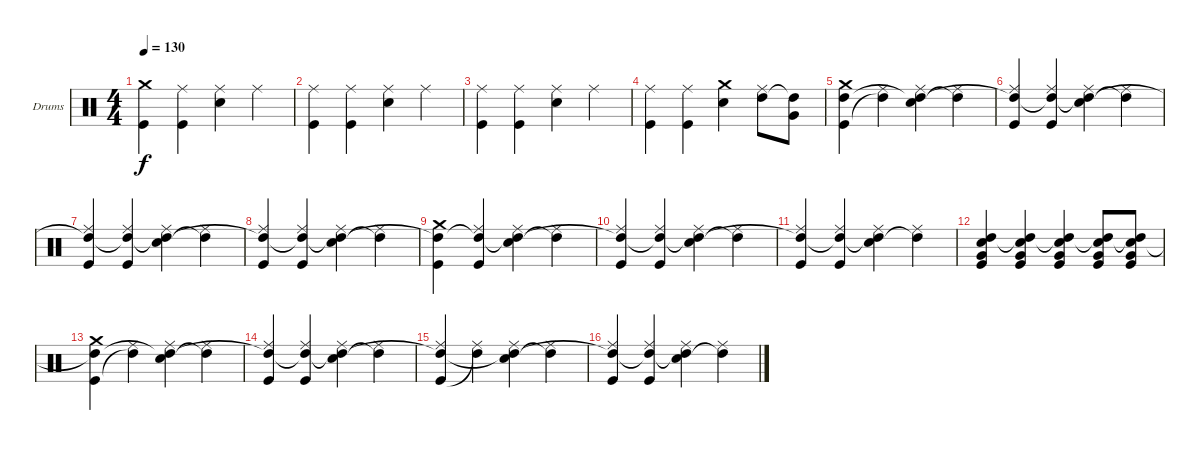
\bracketExtendMode groupsimilarinstruments
\firstSystemTrackNameOrientation horizontal
\otherSystemsTrackNameOrientation horizontal
\track ("Drumkit" "Drums") {instrument percussion}
\staff {score}
\articulation defaults
\ts (4 4)
\tempo 130
\clef neutral
\ks c
("Crash medium (hit)" "Kick (hit)").4{dy f} ("Ride (middle)" "Kick (hit)").4 ("Ride (middle)" "Snare (hit) 2").4 "Ride (middle)".4 |
("Ride (middle)" "Kick (hit)").4 ("Ride (middle)" "Kick (hit)").4 ("Ride (middle)" "Snare (hit) 2").4 "Ride (middle)".4 |
("Ride (middle)" "Kick (hit)").4 ("Ride (middle)" "Kick (hit)").4 ("Ride (middle)" "Snare (hit) 2").4 "Ride (middle)".4 |
("Ride (middle)" "Kick (hit)").4 ("Ride (middle)" "Kick (hit)").4 ("Crash medium (hit)" "Snare (hit) 2").4 ("Ride (middle)" "High Tom (hit)").8 ("Very Low Tom (hit)" "High Tom (hit)"{t}).8 |
("Crash medium (hit)" "Kick (hit)" "High Tom (hit)").4 ("Ride (middle)" "High Tom (hit)"{t}).4 ("Ride (middle)" "Snare (hit) 2" "High Tom (hit)"{t}).4 ("Ride (middle)" "High Tom (hit)"{t}).4 |
("Ride (middle)" "Kick (hit)" "High Tom (hit)"{t}).4 ("Ride (middle)" "Kick (hit)" "High Tom (hit)"{t}).4 ("Ride (middle)" "Snare (hit) 2" "High Tom (hit)"{t}).4 ("Ride (middle)" "High Tom (hit)"{t}).4 |
("Ride (middle)" "Kick (hit)" "High Tom (hit)"{t}).4 ("Ride (middle)" "Kick (hit)" "High Tom (hit)"{t}).4 ("Ride (middle)" "Snare (hit) 2" "High Tom (hit)"{t}).4 ("Ride (middle)" "High Tom (hit)"{t}).4 |
("Ride (middle)" "Kick (hit)" "High Tom (hit)"{t}).4 ("Ride (middle)" "Kick (hit)" "High Tom (hit)"{t}).4 ("Ride (middle)" "Snare (hit) 2" "High Tom (hit)"{t}).4 ("Ride (middle)" "High Tom (hit)"{t}).4 |
("Crash medium (hit)" "Kick (hit)" "High Tom (hit)"{t}).4 ("Ride (middle)" "Kick (hit)" "High Tom (hit)"{t}).4 ("Ride (middle)" "Snare (hit) 2" "High Tom (hit)"{t}).4 ("Ride (middle)" "High Tom (hit)"{t}).4 |
("Ride (middle)" "Kick (hit)" "High Tom (hit)"{t}).4 ("Ride (middle)" "Kick (hit)" "High Tom (hit)"{t}).4 ("Ride (middle)" "Snare (hit) 2" "High Tom (hit)"{t}).4 ("Ride (middle)" "High Tom (hit)"{t}).4 |
("Ride (middle)" "Kick (hit)" "High Tom (hit)"{t}).4 ("Ride (middle)" "Kick (hit)" "High Tom (hit)"{t}).4 ("Ride (middle)" "Snare (hit) 2" "High Tom (hit)"{t}).4 ("Ride (middle)" "High Tom (hit)"{t}).4 |
("Very Low Tom (hit)" "Kick (hit)" "Snare (hit) 2" "High Tom (hit)").4 ("Very Low Tom (hit)" "Kick (hit)" "Snare (hit) 2" "High Tom (hit)"{t}).4 ("Very Low Tom (hit)" "Kick (hit)" "Snare (hit) 2" "High Tom (hit)"{t}).4 ("Very Low Tom (hit)" "Kick (hit)" "Snare (hit) 2" "High Tom (hit)"{t}).8 ("Very Low Tom (hit)" "Kick (hit)" "Snare (hit) 2" "High Tom (hit)"{t}).8 |
("Crash medium (hit)" "Kick (hit)" "High Tom (hit)"{t}).4 ("Ride (middle)" "High Tom (hit)"{t}).4 ("Ride (middle)" "Snare (hit) 2" "High Tom (hit)"{t}).4 ("Ride (middle)" "High Tom (hit)"{t}).4 |
("Ride (middle)" "Kick (hit)" "High Tom (hit)"{t}).4 ("Ride (middle)" "Kick (hit)" "High Tom (hit)"{t}).4 ("Ride (middle)" "Snare (hit) 2" "High Tom (hit)"{t}).4 ("Ride (middle)" "High Tom (hit)"{t}).4 |
("Ride (middle)" "Kick (hit)" "High Tom (hit)"{t}).4 ("Ride (middle)" "High Tom (hit)"{t}).4 ("Ride (middle)" "Snare (hit) 2" "High Tom (hit)"{t}).4 ("Ride (middle)" "High Tom (hit)"{t}).4 |
("Ride (middle)" "Kick (hit)" "High Tom (hit)"{t}).4 ("Ride (middle)" "Kick (hit)" "High Tom (hit)"{t}).4 ("Ride (middle)" "Snare (hit) 2" "High Tom (hit)"{t}).4 ("Ride (middle)" "High Tom (hit)"{t}).4
